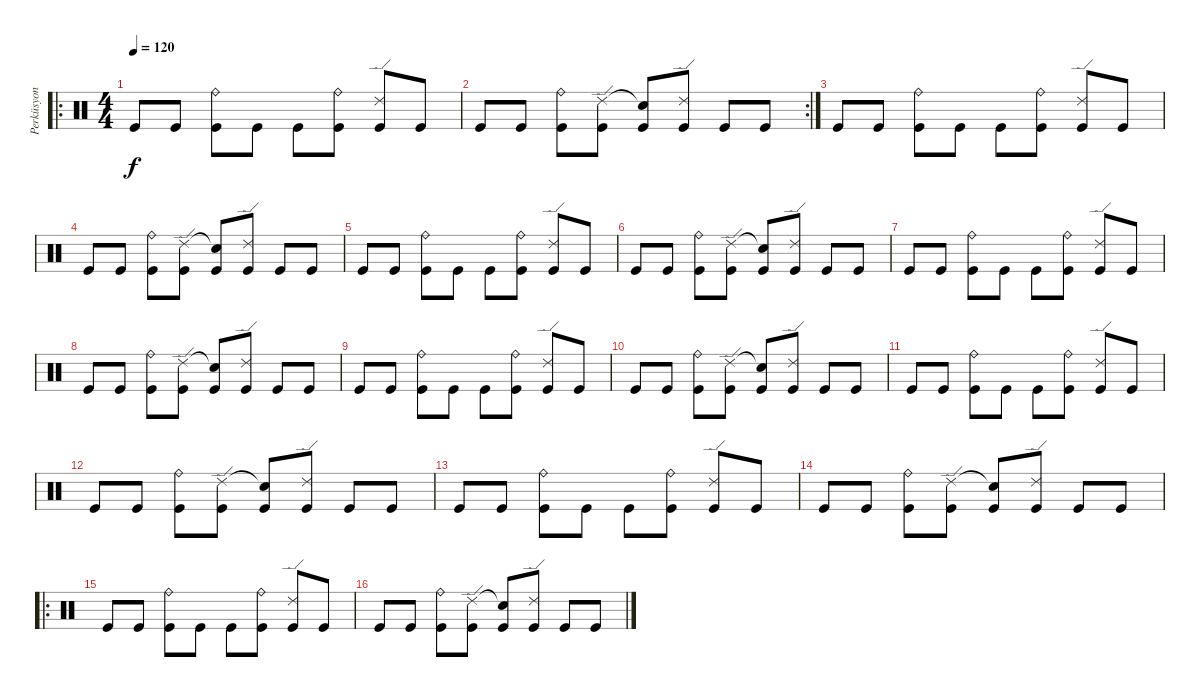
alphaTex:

\track ("Perküsyon" "Perküsyon") {instrument percussion}
\staff {score}
\articulation defaults
\ro
\ts (4 4)
\tempo 120
\clef neutral
\ks c "Kick (hit)".8{dy f} "Kick (hit)".8
("Ride (bell)" "Kick (hit)").8 "Kick (hit)".8 "Kick (hit)".8 ("Ride (bell)" "Kick (hit)").8 ("Ride (edge) 2" "Kick (hit)").8 "Kick (hit)".8 |
\rc 2 "Kick (hit)".8 "Kick (hit)".8
("Ride (bell)" "Kick (hit)").8 ("Ride (edge) 2" "Kick (hit)").8 ("Snare (hit)"{t} "Kick (hit)").8 ("Ride (edge) 2" "Kick (hit)").8 "Kick (hit)".8 "Kick (hit)".8 |
"Kick (hit)".8 "Kick (hit)".8 ("Ride (bell)" "Kick (hit)").8 "Kick (hit)".8 "Kick (hit)".8 ("Ride (bell)" "Kick (hit)").8 ("Ride (edge) 2" "Kick (hit)").8 "Kick (hit)".8 |
"Kick (hit)".8 "Kick (hit)".8 ("Ride (bell)" "Kick (hit)").8 ("Ride (edge) 2" "Kick (hit)").8 ("Snare (hit)"{t} "Kick (hit)").8 ("Ride (edge) 2" "Kick (hit)").8 "Kick (hit)".8 "Kick (hit)".8 |
"Kick (hit)".8 "Kick (hit)".8 ("Ride (bell)" "Kick (hit)").8 "Kick (hit)".8 "Kick (hit)".8 ("Ride (bell)" "Kick (hit)").8 ("Ride (edge) 2" "Kick (hit)").8 "Kick (hit)".8 |
"Kick (hit)".8 "Kick (hit)".8 ("Ride (bell)" "Kick (hit)").8 ("Ride (edge) 2" "Kick (hit)").8 ("Snare (hit)"{t} "Kick (hit)").8 ("Ride (edge) 2" "Kick (hit)").8 "Kick (hit)".8 "Kick (hit)".8 |
"Kick (hit)".8 "Kick (hit)".8 ("Ride (bell)" "Kick (hit)").8 "Kick (hit)".8 "Kick (hit)".8 ("Ride (bell)" "Kick (hit)").8 ("Ride (edge) 2" "Kick (hit)").8 "Kick (hit)".8 |
"Kick (hit)".8 "Kick (hit)".8 ("Ride (bell)" "Kick (hit)").8 ("Ride (edge) 2" "Kick (hit)").8 ("Snare (hit)"{t} "Kick (hit)").8 ("Ride (edge) 2" "Kick (hit)").8 "Kick (hit)".8 "Kick (hit)".8 |
"Kick (hit)".8 "Kick (hit)".8 ("Ride (bell)" "Kick (hit)").8 "Kick (hit)".8 "Kick (hit)".8 ("Ride (bell)" "Kick (hit)").8 ("Ride (edge) 2" "Kick (hit)").8 "Kick (hit)".8 |
"Kick (hit)".8 "Kick (hit)".8 ("Ride (bell)" "Kick (hit)").8 ("Ride (edge) 2" "Kick (hit)").8 ("Snare (hit)"{t} "Kick (hit)").8 ("Ride (edge) 2" "Kick (hit)").8 "Kick (hit)".8 "Kick (hit)".8 |
"Kick (hit)".8 "Kick (hit)".8 ("Ride (bell)" "Kick (hit)").8 "Kick (hit)".8 "Kick (hit)".8 ("Ride (bell)" "Kick (hit)").8 ("Ride (edge) 2" "Kick (hit)").8 "Kick (hit)".8 |
"Kick (hit)".8 "Kick (hit)".8 ("Ride (bell)" "Kick (hit)").8 ("Ride (edge) 2" "Kick (hit)").8 ("Snare (hit)"{t} "Kick (hit)").8 ("Ride (edge) 2" "Kick (hit)").8 "Kick (hit)".8 "Kick (hit)".8 |
"Kick (hit)".8 "Kick (hit)".8 ("Ride (bell)" "Kick (hit)").8 "Kick (hit)".8 "Kick (hit)".8 ("Ride (bell)" "Kick (hit)").8 ("Ride (edge) 2" "Kick (hit)").8 "Kick (hit)".8 |
"Kick (hit)".8 "Kick (hit)".8 ("Ride (bell)" "Kick (hit)").8 ("Ride (edge) 2" "Kick (hit)").8 ("Snare (hit)"{t} "Kick (hit)").8 ("Ride (edge) 2" "Kick (hit)").8 "Kick (hit)".8 "Kick (hit)".8 |
\ro "Kick (hit)".8 "Kick (hit)".8
("Ride (bell)" "Kick (hit)").8 "Kick (hit)".8 "Kick (hit)".8 ("Ride (bell)" "Kick (hit)").8 ("Ride (edge) 2" "Kick (hit)").8 "Kick (hit)".8 |
"Kick (hit)".8 "Kick (hit)".8 ("Ride (bell)" "Kick (hit)").8 ("Ride (edge) 2" "Kick (hit)").8 ("Snare (hit)"{t} "Kick (hit)").8 ("Ride (edge) 2" "Kick (hit)").8 "Kick (hit)".8 "Kick (hit)".8
